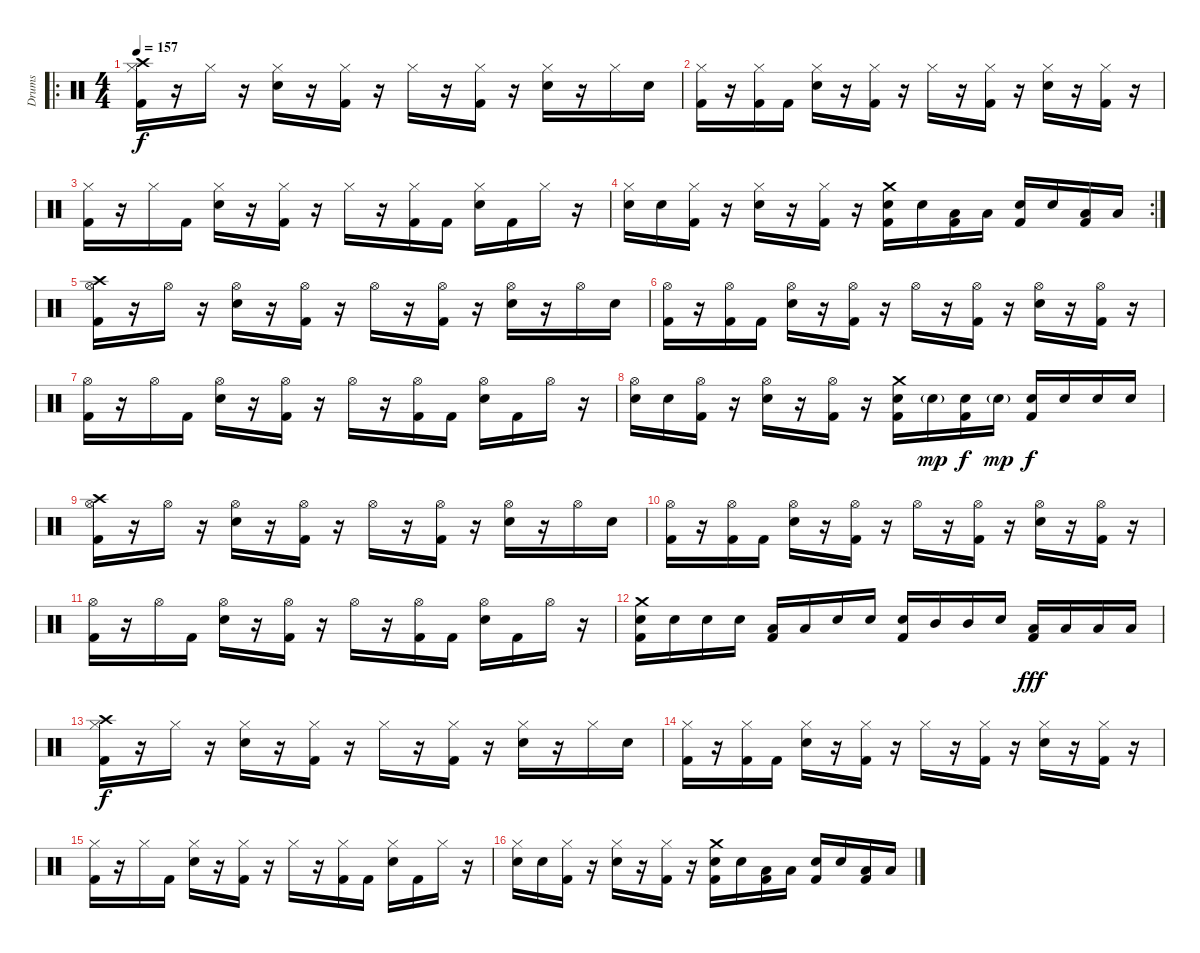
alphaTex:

\track ("Drums" "Drums") {instrument percussion}
\staff {score}
\articulation defaults
\ro
\ts (4 4)
\tempo 157
\clef neutral
\ks c
("Hi-Hat (closed)" "Crash high (hit)" "Kick (hit) 2").16{dy f} r.16 "Hi-Hat (closed)".16 r.16 ("Hi-Hat (closed)" "Electric Snare (hit)").16 r.16 ("Hi-Hat (closed)" "Kick (hit) 2").16 r.16 "Hi-Hat (closed)".16 r.16 ("Hi-Hat (closed)" "Kick (hit) 2").16 r.16 ("Hi-Hat (closed)" "Electric Snare (hit)").16 r.16 "Hi-Hat (closed)".16 "Electric Snare (hit)".16 |
("Hi-Hat (closed)" "Kick (hit) 2").16 r.16 ("Hi-Hat (closed)" "Kick (hit) 2").16 "Kick (hit) 2".16 ("Hi-Hat (closed)" "Electric Snare (hit)").16 r.16 ("Hi-Hat (closed)" "Kick (hit) 2").16 r.16 "Hi-Hat (closed)".16 r.16 ("Hi-Hat (closed)" "Kick (hit) 2").16 r.16 ("Hi-Hat (closed)" "Electric Snare (hit)").16 r.16 ("Hi-Hat (closed)" "Kick (hit) 2").16 r.16 |
("Hi-Hat (closed)" "Kick (hit) 2").16 r.16 "Hi-Hat (closed)".16 "Kick (hit) 2".16 ("Hi-Hat (closed)" "Electric Snare (hit)").16 r.16 ("Hi-Hat (closed)" "Kick (hit) 2").16 r.16 "Hi-Hat (closed)".16 r.16 ("Hi-Hat (closed)" "Kick (hit) 2").16 "Kick (hit) 2".16 ("Hi-Hat (closed)" "Electric Snare (hit)").16 "Kick (hit) 2".16 "Hi-Hat (closed)".16 r.16 |
\rc 2
("Hi-Hat (closed)" "Electric Snare (hit)").16 "Electric Snare (hit)".16 ("Hi-Hat (closed)" "Kick (hit) 2").16 r.16 ("Hi-Hat (closed)" "Electric Snare (hit)").16 r.16 ("Hi-Hat (closed)" "Kick (hit) 2").16 r.16 ("Crash medium (hit)" "Electric Snare (hit)" "Kick (hit) 2").16 "Electric Snare (hit)".16 ("Low Tom (hit)" "Kick (hit) 2").16 "Low Tom (hit)".16 ("Electric Snare (hit)" "Kick (hit) 2").16 "Electric Snare (hit)".16 ("Low Tom (hit)" "Kick (hit) 2").16 "Low Tom (hit)".16 |
("Hi-Hat (open)" "Crash high (hit)" "Kick (hit) 2").16 r.16 "Hi-Hat (open)".16 r.16 ("Hi-Hat (open)" "Electric Snare (hit)").16 r.16 ("Hi-Hat (open)" "Kick (hit) 2").16 r.16 "Hi-Hat (open)".16 r.16 ("Hi-Hat (open)" "Kick (hit) 2").16 r.16 ("Hi-Hat (open)" "Electric Snare (hit)").16 r.16 "Hi-Hat (open)".16 "Electric Snare (hit)".16 |
("Hi-Hat (open)" "Kick (hit) 2").16 r.16 ("Hi-Hat (open)" "Kick (hit) 2").16 "Kick (hit) 2".16 ("Hi-Hat (open)" "Electric Snare (hit)").16 r.16 ("Hi-Hat (open)" "Kick (hit) 2").16 r.16 "Hi-Hat (open)".16 r.16 ("Hi-Hat (open)" "Kick (hit) 2").16 r.16 ("Hi-Hat (open)" "Electric Snare (hit)").16 r.16 ("Hi-Hat (open)" "Kick (hit) 2").16 r.16 |
("Hi-Hat (open)" "Kick (hit) 2").16 r.16 "Hi-Hat (open)".16 "Kick (hit) 2".16 ("Hi-Hat (open)" "Electric Snare (hit)").16 r.16 ("Hi-Hat (open)" "Kick (hit) 2").16 r.16 "Hi-Hat (open)".16 r.16 ("Hi-Hat (open)" "Kick (hit) 2").16 "Kick (hit) 2".16 ("Hi-Hat (open)" "Electric Snare (hit)").16 "Kick (hit) 2".16 "Hi-Hat (open)".16 r.16 |
("Hi-Hat (open)" "Electric Snare (hit)").16 "Electric Snare (hit)".16 ("Hi-Hat (open)" "Kick (hit) 2").16 r.16 ("Hi-Hat (open)" "Electric Snare (hit)").16 r.16 ("Hi-Hat (open)" "Kick (hit) 2").16 r.16 ("Crash medium (hit)" "Electric Snare (hit)" "Kick (hit) 2").16 "Electric Snare (hit)"{g}.16{dy mp} ("Electric Snare (hit)" "Kick (hit) 2").16{dy f} "Electric Snare (hit)"{g}.16{dy mp} ("Electric Snare (hit)" "Kick (hit) 2").16{dy f} "Electric Snare (hit)".16 "Electric Snare (hit)".16 "Electric Snare (hit)".16 |
("Hi-Hat (open)" "Crash high (hit)" "Kick (hit) 2").16 r.16 "Hi-Hat (open)".16 r.16 ("Hi-Hat (open)" "Electric Snare (hit)").16 r.16 ("Hi-Hat (open)" "Kick (hit) 2").16 r.16 "Hi-Hat (open)".16 r.16 ("Hi-Hat (open)" "Kick (hit) 2").16 r.16 ("Hi-Hat (open)" "Electric Snare (hit)").16 r.16 "Hi-Hat (open)".16 "Electric Snare (hit)".16 |
("Hi-Hat (open)" "Kick (hit) 2").16 r.16 ("Hi-Hat (open)" "Kick (hit) 2").16 "Kick (hit) 2".16 ("Hi-Hat (open)" "Electric Snare (hit)").16 r.16 ("Hi-Hat (open)" "Kick (hit) 2").16 r.16 "Hi-Hat (open)".16 r.16 ("Hi-Hat (open)" "Kick (hit) 2").16 r.16 ("Hi-Hat (open)" "Electric Snare (hit)").16 r.16 ("Hi-Hat (open)" "Kick (hit) 2").16 r.16 |
("Hi-Hat (open)" "Kick (hit) 2").16 r.16 "Hi-Hat (open)".16 "Kick (hit) 2".16 ("Hi-Hat (open)" "Electric Snare (hit)").16 r.16 ("Hi-Hat (open)" "Kick (hit) 2").16 r.16 "Hi-Hat (open)".16 r.16 ("Hi-Hat (open)" "Kick (hit) 2").16 "Kick (hit) 2".16 ("Hi-Hat (open)" "Electric Snare (hit)").16 "Kick (hit) 2".16 "Hi-Hat (open)".16 r.16 |
("Crash medium (hit)" "Electric Snare (hit)" "Kick (hit) 2").16 "Electric Snare (hit)".16 "Electric Snare (hit)".16 "Electric Snare (hit)".16 ("Low Tom (hit)" "Kick (hit) 2").16 "Low Tom (hit)".16 "Electric Snare (hit)".16 "Electric Snare (hit)".16 ("Electric Snare (hit)" "Kick (hit) 2").16 "Mid Tom (hit)".16 "Mid Tom (hit)".16 "Electric Snare (hit)".16 ("Low Tom (hit)" "Kick (hit) 2").16{dy fff} "Low Tom (hit)".16 "Low Tom (hit)".16 "Low Tom (hit)".16 |
("Hi-Hat (closed)" "Crash high (hit)" "Kick (hit) 2").16{dy f} r.16 "Hi-Hat (closed)".16 r.16 ("Hi-Hat (closed)" "Electric Snare (hit)").16 r.16 ("Hi-Hat (closed)" "Kick (hit) 2").16 r.16 "Hi-Hat (closed)".16 r.16 ("Hi-Hat (closed)" "Kick (hit) 2").16 r.16 ("Hi-Hat (closed)" "Electric Snare (hit)").16 r.16 "Hi-Hat (closed)".16 "Electric Snare (hit)".16 |
("Hi-Hat (closed)" "Kick (hit) 2").16 r.16 ("Hi-Hat (closed)" "Kick (hit) 2").16 "Kick (hit) 2".16 ("Hi-Hat (closed)" "Electric Snare (hit)").16 r.16 ("Hi-Hat (closed)" "Kick (hit) 2").16 r.16 "Hi-Hat (closed)".16 r.16 ("Hi-Hat (closed)" "Kick (hit) 2").16 r.16 ("Hi-Hat (closed)" "Electric Snare (hit)").16 r.16 ("Hi-Hat (closed)" "Kick (hit) 2").16 r.16 |
("Hi-Hat (closed)" "Kick (hit) 2").16 r.16 "Hi-Hat (closed)".16 "Kick (hit) 2".16 ("Hi-Hat (closed)" "Electric Snare (hit)").16 r.16 ("Hi-Hat (closed)" "Kick (hit) 2").16 r.16 "Hi-Hat (closed)".16 r.16 ("Hi-Hat (closed)" "Kick (hit) 2").16 "Kick (hit) 2".16 ("Hi-Hat (closed)" "Electric Snare (hit)").16 "Kick (hit) 2".16 "Hi-Hat (closed)".16 r.16 |
("Hi-Hat (closed)" "Electric Snare (hit)").16 "Electric Snare (hit)".16 ("Hi-Hat (closed)" "Kick (hit) 2").16 r.16 ("Hi-Hat (closed)" "Electric Snare (hit)").16 r.16 ("Hi-Hat (closed)" "Kick (hit) 2").16 r.16 ("Crash medium (hit)" "Electric Snare (hit)" "Kick (hit) 2").16 "Electric Snare (hit)".16 ("Low Tom (hit)" "Kick (hit) 2").16 "Low Tom (hit)".16 ("Electric Snare (hit)" "Kick (hit) 2").16 "Electric Snare (hit)".16 ("Low Tom (hit)" "Kick (hit) 2").16 "Low Tom (hit)".16
